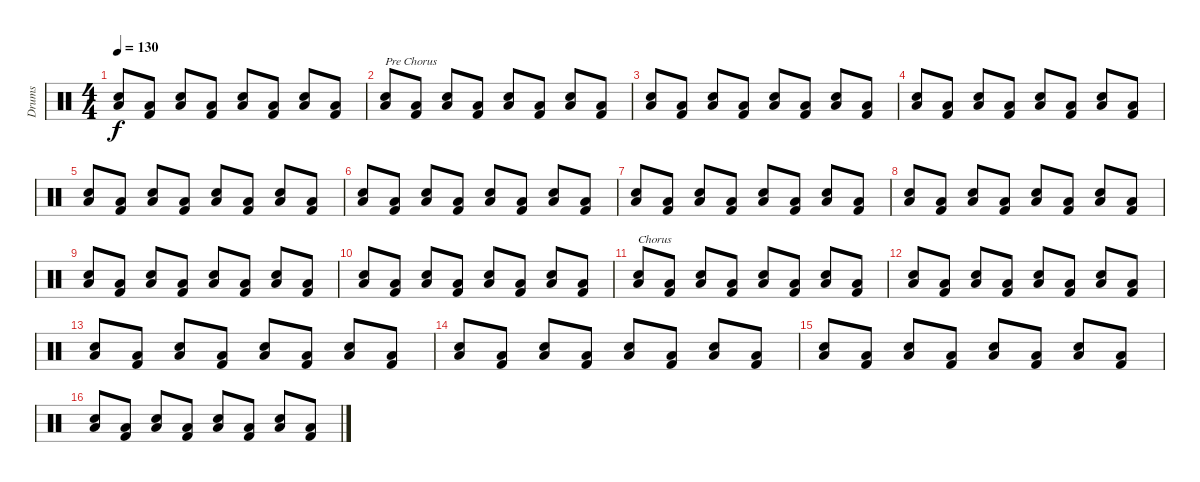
\track ("Drums" "Drums") {instrument percussion}
\staff {score}
\articulation defaults
\ts (4 4)
\tempo 130
\clef neutral
\ks c
("Snare (hit) 2" "Low Floor Tom (hit)").8{dy f} ("Low Floor Tom (hit)" "Kick (hit) 2").8 ("Snare (hit) 2" "Low Floor Tom (hit)").8 ("Kick (hit) 2" "Low Floor Tom (hit)").8 ("Snare (hit) 2" "Low Floor Tom (hit)").8 ("Kick (hit) 2" "Low Floor Tom (hit)").8 ("Snare (hit) 2" "Low Floor Tom (hit)").8 ("Kick (hit) 2" "Low Floor Tom (hit)").8 |
("Snare (hit) 2" "Low Floor Tom (hit)").8{txt "Pre Chorus"} ("Low Floor Tom (hit)" "Kick (hit) 2").8 ("Snare (hit) 2" "Low Floor Tom (hit)").8 ("Kick (hit) 2" "Low Floor Tom (hit)").8 ("Snare (hit) 2" "Low Floor Tom (hit)").8 ("Kick (hit) 2" "Low Floor Tom (hit)").8 ("Snare (hit) 2" "Low Floor Tom (hit)").8 ("Kick (hit) 2" "Low Floor Tom (hit)").8 |
("Snare (hit) 2" "Low Floor Tom (hit)").8 ("Low Floor Tom (hit)" "Kick (hit) 2").8 ("Snare (hit) 2" "Low Floor Tom (hit)").8 ("Kick (hit) 2" "Low Floor Tom (hit)").8 ("Snare (hit) 2" "Low Floor Tom (hit)").8 ("Kick (hit) 2" "Low Floor Tom (hit)").8 ("Snare (hit) 2" "Low Floor Tom (hit)").8 ("Kick (hit) 2" "Low Floor Tom (hit)").8 |
("Snare (hit) 2" "Low Floor Tom (hit)").8 ("Low Floor Tom (hit)" "Kick (hit) 2").8 ("Snare (hit) 2" "Low Floor Tom (hit)").8 ("Kick (hit) 2" "Low Floor Tom (hit)").8 ("Snare (hit) 2" "Low Floor Tom (hit)").8 ("Kick (hit) 2" "Low Floor Tom (hit)").8 ("Snare (hit) 2" "Low Floor Tom (hit)").8 ("Kick (hit) 2" "Low Floor Tom (hit)").8 |
("Snare (hit) 2" "Low Floor Tom (hit)").8 ("Low Floor Tom (hit)" "Kick (hit) 2").8 ("Snare (hit) 2" "Low Floor Tom (hit)").8 ("Kick (hit) 2" "Low Floor Tom (hit)").8 ("Snare (hit) 2" "Low Floor Tom (hit)").8 ("Kick (hit) 2" "Low Floor Tom (hit)").8 ("Snare (hit) 2" "Low Floor Tom (hit)").8 ("Kick (hit) 2" "Low Floor Tom (hit)").8 |
("Snare (hit) 2" "Low Floor Tom (hit)").8 ("Low Floor Tom (hit)" "Kick (hit) 2").8 ("Snare (hit) 2" "Low Floor Tom (hit)").8 ("Kick (hit) 2" "Low Floor Tom (hit)").8 ("Snare (hit) 2" "Low Floor Tom (hit)").8 ("Kick (hit) 2" "Low Floor Tom (hit)").8 ("Snare (hit) 2" "Low Floor Tom (hit)").8 ("Kick (hit) 2" "Low Floor Tom (hit)").8 |
("Snare (hit) 2" "Low Floor Tom (hit)").8 ("Low Floor Tom (hit)" "Kick (hit) 2").8 ("Snare (hit) 2" "Low Floor Tom (hit)").8 ("Kick (hit) 2" "Low Floor Tom (hit)").8 ("Snare (hit) 2" "Low Floor Tom (hit)").8 ("Kick (hit) 2" "Low Floor Tom (hit)").8 ("Snare (hit) 2" "Low Floor Tom (hit)").8 ("Kick (hit) 2" "Low Floor Tom (hit)").8 |
("Snare (hit) 2" "Low Floor Tom (hit)").8 ("Low Floor Tom (hit)" "Kick (hit) 2").8 ("Snare (hit) 2" "Low Floor Tom (hit)").8 ("Kick (hit) 2" "Low Floor Tom (hit)").8 ("Snare (hit) 2" "Low Floor Tom (hit)").8 ("Kick (hit) 2" "Low Floor Tom (hit)").8 ("Snare (hit) 2" "Low Floor Tom (hit)").8 ("Kick (hit) 2" "Low Floor Tom (hit)").8 |
("Snare (hit) 2" "Low Floor Tom (hit)").8 ("Low Floor Tom (hit)" "Kick (hit) 2").8 ("Snare (hit) 2" "Low Floor Tom (hit)").8 ("Kick (hit) 2" "Low Floor Tom (hit)").8 ("Snare (hit) 2" "Low Floor Tom (hit)").8 ("Kick (hit) 2" "Low Floor Tom (hit)").8 ("Snare (hit) 2" "Low Floor Tom (hit)").8 ("Kick (hit) 2" "Low Floor Tom (hit)").8 |
("Snare (hit) 2" "Low Floor Tom (hit)").8 ("Low Floor Tom (hit)" "Kick (hit) 2").8 ("Snare (hit) 2" "Low Floor Tom (hit)").8 ("Kick (hit) 2" "Low Floor Tom (hit)").8 ("Snare (hit) 2" "Low Floor Tom (hit)").8 ("Kick (hit) 2" "Low Floor Tom (hit)").8 ("Snare (hit) 2" "Low Floor Tom (hit)").8 ("Kick (hit) 2" "Low Floor Tom (hit)").8 |
("Snare (hit) 2" "Low Floor Tom (hit)").8{txt "Chorus"} ("Low Floor Tom (hit)" "Kick (hit) 2").8 ("Snare (hit) 2" "Low Floor Tom (hit)").8 ("Kick (hit) 2" "Low Floor Tom (hit)").8 ("Snare (hit) 2" "Low Floor Tom (hit)").8 ("Kick (hit) 2" "Low Floor Tom (hit)").8 ("Snare (hit) 2" "Low Floor Tom (hit)").8 ("Kick (hit) 2" "Low Floor Tom (hit)").8 |
("Snare (hit) 2" "Low Floor Tom (hit)").8 ("Low Floor Tom (hit)" "Kick (hit) 2").8 ("Snare (hit) 2" "Low Floor Tom (hit)").8 ("Kick (hit) 2" "Low Floor Tom (hit)").8 ("Snare (hit) 2" "Low Floor Tom (hit)").8 ("Kick (hit) 2" "Low Floor Tom (hit)").8 ("Snare (hit) 2" "Low Floor Tom (hit)").8 ("Kick (hit) 2" "Low Floor Tom (hit)").8 |
("Snare (hit) 2" "Low Floor Tom (hit)").8 ("Low Floor Tom (hit)" "Kick (hit) 2").8 ("Snare (hit) 2" "Low Floor Tom (hit)").8 ("Kick (hit) 2" "Low Floor Tom (hit)").8 ("Snare (hit) 2" "Low Floor Tom (hit)").8 ("Kick (hit) 2" "Low Floor Tom (hit)").8 ("Snare (hit) 2" "Low Floor Tom (hit)").8 ("Kick (hit) 2" "Low Floor Tom (hit)").8 |
("Snare (hit) 2" "Low Floor Tom (hit)").8 ("Low Floor Tom (hit)" "Kick (hit) 2").8 ("Snare (hit) 2" "Low Floor Tom (hit)").8 ("Kick (hit) 2" "Low Floor Tom (hit)").8 ("Snare (hit) 2" "Low Floor Tom (hit)").8 ("Kick (hit) 2" "Low Floor Tom (hit)").8 ("Snare (hit) 2" "Low Floor Tom (hit)").8 ("Kick (hit) 2" "Low Floor Tom (hit)").8 |
("Snare (hit) 2" "Low Floor Tom (hit)").8 ("Low Floor Tom (hit)" "Kick (hit) 2").8 ("Snare (hit) 2" "Low Floor Tom (hit)").8 ("Kick (hit) 2" "Low Floor Tom (hit)").8 ("Snare (hit) 2" "Low Floor Tom (hit)").8 ("Kick (hit) 2" "Low Floor Tom (hit)").8 ("Snare (hit) 2" "Low Floor Tom (hit)").8 ("Kick (hit) 2" "Low Floor Tom (hit)").8 |
("Snare (hit) 2" "Low Floor Tom (hit)").8 ("Low Floor Tom (hit)" "Kick (hit) 2").8 ("Snare (hit) 2" "Low Floor Tom (hit)").8 ("Kick (hit) 2" "Low Floor Tom (hit)").8 ("Snare (hit) 2" "Low Floor Tom (hit)").8 ("Kick (hit) 2" "Low Floor Tom (hit)").8 ("Snare (hit) 2" "Low Floor Tom (hit)").8 ("Kick (hit) 2" "Low Floor Tom (hit)").8
